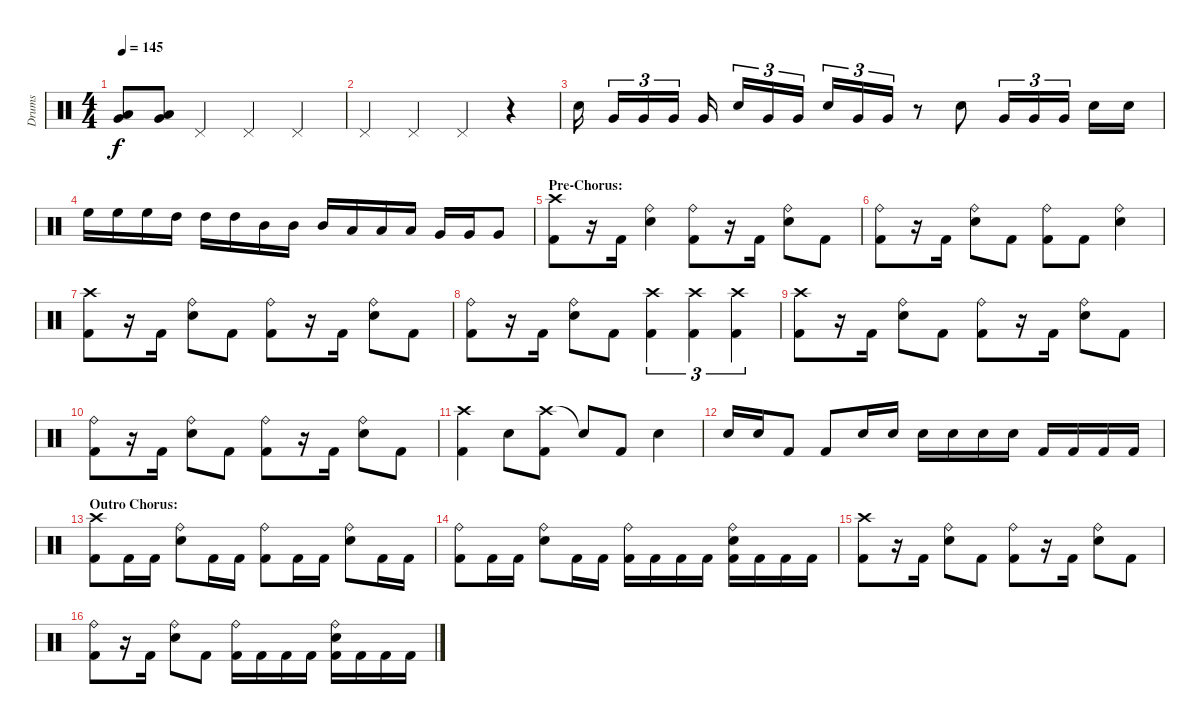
\track ("Drums" "Drums") {instrument percussion}
\staff {score}
\articulation defaults
\ts (4 4)
\tempo 145
\clef neutral
\ks c
("Low Tom (hit)" "Very Low Tom (hit)").8{dy f} ("Low Tom (hit)" "Very Low Tom (hit)").8 "Pedal Hi-Hat (hit)".4 "Pedal Hi-Hat (hit)".4 "Pedal Hi-Hat (hit)".4 |
"Pedal Hi-Hat (hit)".4 "Pedal Hi-Hat (hit)".4 "Pedal Hi-Hat (hit)".4 r.4 |
"Snare (hit) 2".16 "Very Low Tom (hit)".16{tu (3 2)} "Very Low Tom (hit)".16{tu (3 2)} "Very Low Tom (hit)".16{tu (3 2)} "Very Low Tom (hit)".16 "Snare (hit) 2".16{tu (3 2)} "Very Low Tom (hit)".16{tu (3 2)} "Very Low Tom (hit)".16{tu (3 2)} "Snare (hit) 2".16{tu (3 2)} "Very Low Tom (hit)".16{tu (3 2)} "Very Low Tom (hit)".16{tu (3 2)} r.8 "Snare (hit) 2".8 "Very Low Tom (hit)".16{tu (3 2)} "Very Low Tom (hit)".16{tu (3 2)} "Very Low Tom (hit)".16{tu (3 2)} "Snare (hit) 2".16 "Snare (hit) 2".16 |
"High Floor Tom (hit)".16 "High Floor Tom (hit)".16 "High Floor Tom (hit)".16 "High Tom (hit)".16 "High Tom (hit)".16 "High Tom (hit)".16 "Mid Tom (hit)".16 "Mid Tom (hit)".16 "Mid Tom (hit)".16 "Low Tom (hit)".16 "Low Tom (hit)".16 "Low Tom (hit)".16 "Very Low Tom (hit)".16 "Very Low Tom (hit)".16 "Very Low Tom (hit)".8 |
\section ("" "Pre-Chorus:")
("Crash high (hit)" "Kick (hit) 2").8 r.16 "Kick (hit) 2".16 ("Ride (bell)" "Snare (hit) 2").4 ("Ride (bell)" "Kick (hit) 2").8 r.16 "Kick (hit) 2".16 ("Ride (bell)" "Snare (hit) 2").8 "Kick (hit) 2".8 |
("Ride (bell)" "Kick (hit) 2").8 r.16 "Kick (hit) 2".16 ("Ride (bell)" "Snare (hit) 2").8 "Kick (hit) 2".8 ("Ride (bell)" "Kick (hit) 2").8 "Kick (hit) 2".8 ("Ride (bell)" "Snare (hit) 2").4 |
("Crash high (hit)" "Kick (hit) 2").8 r.16 "Kick (hit) 2".16 ("Ride (bell)" "Snare (hit) 2").8 "Kick (hit) 2".8 ("Ride (bell)" "Kick (hit) 2").8 r.16 "Kick (hit) 2".16 ("Ride (bell)" "Snare (hit) 2").8 "Kick (hit) 2".8 |
("Ride (bell)" "Kick (hit) 2").8 r.16 "Kick (hit) 2".16 ("Ride (bell)" "Snare (hit) 2").8 "Kick (hit) 2".8 ("Crash high (hit)" "Kick (hit) 2").4{tu (3 2)} ("Crash high (hit)" "Kick (hit) 2").4{tu (3 2)} ("Crash high (hit)" "Kick (hit) 2").4{tu (3 2)} |
("Crash high (hit)" "Kick (hit) 2").8 r.16 "Kick (hit) 2".16 ("Ride (bell)" "Snare (hit) 2").8 "Kick (hit) 2".8 ("Ride (bell)" "Kick (hit) 2").8 r.16 "Kick (hit) 2".16 ("Ride (bell)" "Snare (hit) 2").8 "Kick (hit) 2".8 |
("Ride (bell)" "Kick (hit) 2").8 r.16 "Kick (hit) 2".16 ("Ride (bell)" "Snare (hit) 2").8 "Kick (hit) 2".8 ("Ride (bell)" "Kick (hit) 2").8 r.16 "Kick (hit) 2".16 ("Ride (bell)" "Snare (hit) 2").8 "Kick (hit) 2".8 |
("Crash high (hit)" "Kick (hit) 2").4 "Snare (hit) 2".8 ("Crash high (hit)" "Kick (hit) 2").8 "Snare (hit)"{t}.8 "Kick (hit) 2".8 "Snare (hit) 2".4 |
"Snare (hit) 2".16 "Snare (hit) 2".16 "Kick (hit) 2".8 "Kick (hit) 2".8 "Snare (hit) 2".16 "Snare (hit) 2".16 "Snare (hit) 2".16 "Snare (hit) 2".16 "Snare (hit) 2".16 "Snare (hit) 2".16 "Kick (hit) 2".16 "Kick (hit) 2".16 "Kick (hit) 2".16 "Kick (hit) 2".16 |
\section ("" "Outro Chorus:")
("Crash high (hit)" "Kick (hit) 2").8 "Kick (hit) 2".16 "Kick (hit) 2".16 ("Ride (bell)" "Snare (hit) 2").8 "Kick (hit) 2".16 "Kick (hit) 2".16 ("Ride (bell)" "Kick (hit) 2").8 "Kick (hit) 2".16 "Kick (hit) 2".16 ("Ride (bell)" "Snare (hit) 2").8 "Kick (hit) 2".16 "Kick (hit) 2".16 |
("Ride (bell)" "Kick (hit) 2").8 "Kick (hit) 2".16 "Kick (hit) 2".16 ("Ride (bell)" "Snare (hit) 2").8 "Kick (hit) 2".16 "Kick (hit) 2".16 ("Ride (bell)" "Kick (hit) 2").16 "Kick (hit) 2".16 "Kick (hit) 2".16 "Kick (hit) 2".16 ("Ride (bell)" "Snare (hit) 2" "Kick (hit) 2").16 "Kick (hit) 2".16 "Kick (hit) 2".16 "Kick (hit) 2".16 |
("Crash high (hit)" "Kick (hit) 2").8 r.16 "Kick (hit) 2".16 ("Ride (bell)" "Snare (hit) 2").8 "Kick (hit) 2".8 ("Ride (bell)" "Kick (hit) 2").8 r.16 "Kick (hit) 2".16 ("Ride (bell)" "Snare (hit) 2").8 "Kick (hit) 2".8 |
("Ride (bell)" "Kick (hit) 2").8 r.16 "Kick (hit) 2".16 ("Ride (bell)" "Snare (hit) 2").8 "Kick (hit) 2".8 ("Ride (bell)" "Kick (hit) 2").16 "Kick (hit) 2".16 "Kick (hit) 2".16 "Kick (hit) 2".16 ("Ride (bell)" "Snare (hit) 2" "Kick (hit) 2").16 "Kick (hit) 2".16 "Kick (hit) 2".16 "Kick (hit) 2".16
